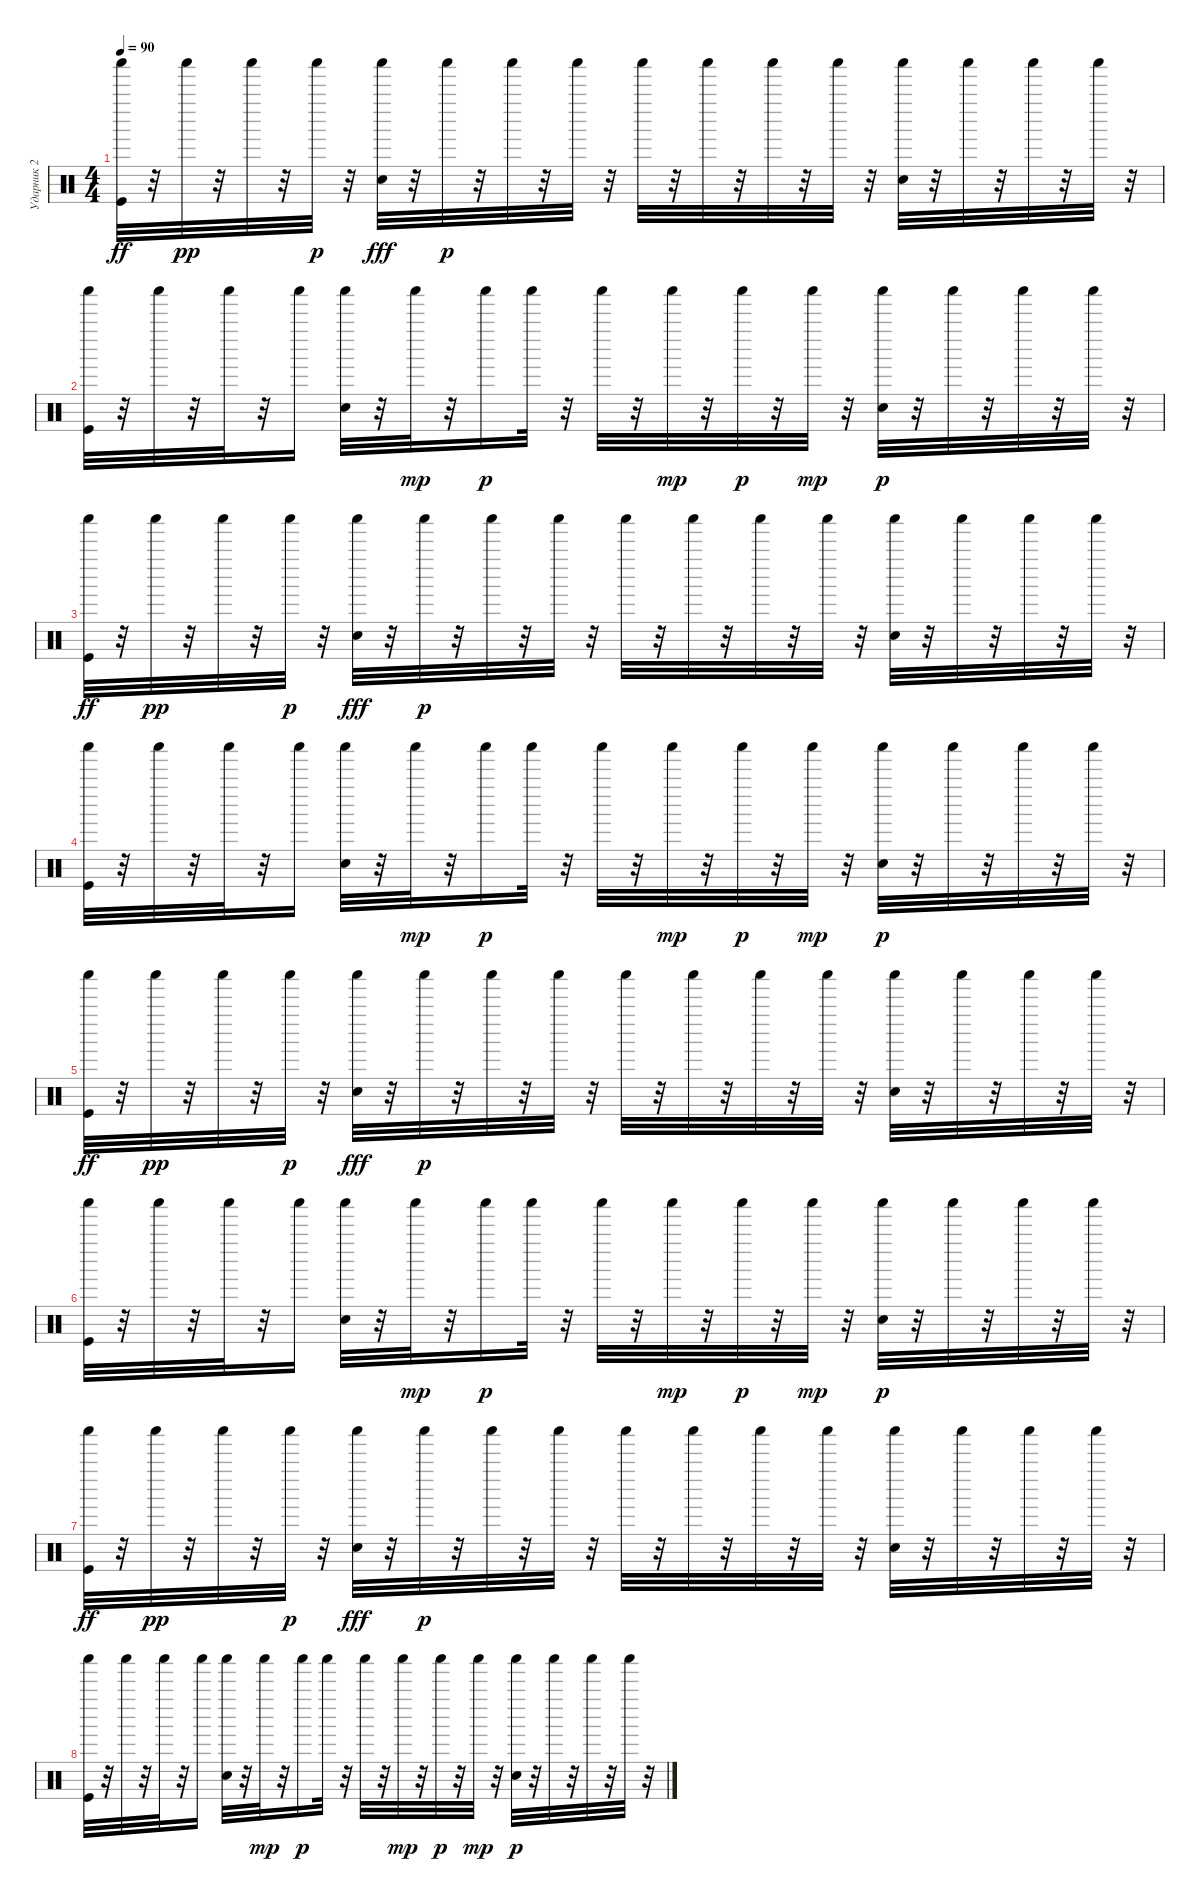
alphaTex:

\track ("Ударник 2" "Ударник 2") {instrument percussion}
\staff {score}
\articulation defaults
\ts (4 4)
\tempo 90
\clef neutral
\ks c
("Shaker (hit)" "Kick (hit)").32{dy ff} r.32 "Shaker (hit)".32{dy pp} r.32 "Shaker (hit)".32 r.32 "Shaker (hit)".32{dy p} r.32 ("Shaker (hit)" "Electric Snare (hit)").32{dy fff} r.32 "Shaker (hit)".32{dy p} r.32 "Shaker (hit)".32 r.32 "Shaker (hit)".32 r.32 "Shaker (hit)".32 r.32 "Shaker (hit)".32 r.32 "Shaker (hit)".32 r.32 "Shaker (hit)".32 r.32 ("Electric Snare (hit)" "Shaker (hit)").32 r.32 "Shaker (hit)".32 r.32 "Shaker (hit)".32 r.32 "Shaker (hit)".32 r.32 |
("Kick (hit)" "Shaker (hit)").32 r.32 "Shaker (hit)".32 r.32 "Shaker (hit)".32 r.32 "Shaker (hit)".16 ("Electric Snare (hit)" "Shaker (hit)").32 r.32 "Shaker (hit)".32{dy mp} r.32 "Shaker (hit)".16{dy p} "Shaker (hit)".32 r.32 "Shaker (hit)".32 r.32 "Shaker (hit)".32{dy mp} r.32 "Shaker (hit)".32{dy p} r.32 "Shaker (hit)".32{dy mp} r.32 ("Electric Snare (hit)" "Shaker (hit)").32{dy p} r.32 "Shaker (hit)".32 r.32 "Shaker (hit)".32 r.32 "Shaker (hit)".32 r.32 |
("Shaker (hit)" "Kick (hit)").32{dy ff} r.32 "Shaker (hit)".32{dy pp} r.32 "Shaker (hit)".32 r.32 "Shaker (hit)".32{dy p} r.32 ("Shaker (hit)" "Electric Snare (hit)").32{dy fff} r.32 "Shaker (hit)".32{dy p} r.32 "Shaker (hit)".32 r.32 "Shaker (hit)".32 r.32 "Shaker (hit)".32 r.32 "Shaker (hit)".32 r.32 "Shaker (hit)".32 r.32 "Shaker (hit)".32 r.32 ("Electric Snare (hit)" "Shaker (hit)").32 r.32 "Shaker (hit)".32 r.32 "Shaker (hit)".32 r.32 "Shaker (hit)".32 r.32 |
("Kick (hit)" "Shaker (hit)").32 r.32 "Shaker (hit)".32 r.32 "Shaker (hit)".32 r.32 "Shaker (hit)".16 ("Electric Snare (hit)" "Shaker (hit)").32 r.32 "Shaker (hit)".32{dy mp} r.32 "Shaker (hit)".16{dy p} "Shaker (hit)".32 r.32 "Shaker (hit)".32 r.32 "Shaker (hit)".32{dy mp} r.32 "Shaker (hit)".32{dy p} r.32 "Shaker (hit)".32{dy mp} r.32 ("Electric Snare (hit)" "Shaker (hit)").32{dy p} r.32 "Shaker (hit)".32 r.32 "Shaker (hit)".32 r.32 "Shaker (hit)".32 r.32 |
("Shaker (hit)" "Kick (hit)").32{dy ff} r.32 "Shaker (hit)".32{dy pp} r.32 "Shaker (hit)".32 r.32 "Shaker (hit)".32{dy p} r.32 ("Shaker (hit)" "Electric Snare (hit)").32{dy fff} r.32 "Shaker (hit)".32{dy p} r.32 "Shaker (hit)".32 r.32 "Shaker (hit)".32 r.32 "Shaker (hit)".32 r.32 "Shaker (hit)".32 r.32 "Shaker (hit)".32 r.32 "Shaker (hit)".32 r.32 ("Electric Snare (hit)" "Shaker (hit)").32 r.32 "Shaker (hit)".32 r.32 "Shaker (hit)".32 r.32 "Shaker (hit)".32 r.32 |
("Kick (hit)" "Shaker (hit)").32 r.32 "Shaker (hit)".32{volume 12} r.32 "Shaker (hit)".32{volume 12} r.32 "Shaker (hit)".16{volume 12} ("Electric Snare (hit)" "Shaker (hit)").32{volume 12} r.32 "Shaker (hit)".32{dy mp volume 11} r.32 "Shaker (hit)".16{dy p volume 11} "Shaker (hit)".32{volume 11} r.32 "Shaker (hit)".32{volume 11} r.32 "Shaker (hit)".32{dy mp volume 11} r.32 "Shaker (hit)".32{dy p volume 11} r.32 "Shaker (hit)".32{dy mp volume 10} r.32 ("Electric Snare (hit)" "Shaker (hit)").32{dy p volume 10} r.32 "Shaker (hit)".32{volume 10} r.32 "Shaker (hit)".32{volume 10} r.32 "Shaker (hit)".32{volume 10} r.32 |
("Shaker (hit)" "Kick (hit)").32{dy ff volume 10} r.32 "Shaker (hit)".32{dy pp volume 10} r.32 "Shaker (hit)".32{volume 9} r.32 "Shaker (hit)".32{dy p volume 9} r.32 ("Shaker (hit)" "Electric Snare (hit)").32{dy fff volume 9} r.32 "Shaker (hit)".32{dy p volume 9} r.32 "Shaker (hit)".32{volume 9} r.32 "Shaker (hit)".32{volume 9} r.32 "Shaker (hit)".32{volume 8} r.32 "Shaker (hit)".32{volume 8} r.32 "Shaker (hit)".32{volume 8} r.32 "Shaker (hit)".32{volume 8} r.32 ("Electric Snare (hit)" "Shaker (hit)").32{volume 8} r.32 "Shaker (hit)".32{volume 8} r.32 "Shaker (hit)".32{volume 8} r.32 "Shaker (hit)".32{volume 8} r.32 |
("Kick (hit)" "Shaker (hit)").32{volume 7} r.32 "Shaker (hit)".32{volume 7} r.32 "Shaker (hit)".32{volume 7} r.32 "Shaker (hit)".16{volume 7} ("Electric Snare (hit)" "Shaker (hit)").32{volume 7} r.32 "Shaker (hit)".32{dy mp volume 6} r.32 "Shaker (hit)".16{dy p volume 6} "Shaker (hit)".32{volume 6} r.32 "Shaker (hit)".32{volume 6} r.32 "Shaker (hit)".32{dy mp volume 6} r.32 "Shaker (hit)".32{dy p volume 6} r.32 "Shaker (hit)".32{dy mp volume 6} r.32 ("Electric Snare (hit)" "Shaker (hit)").32{dy p volume 6} r.32 "Shaker (hit)".32{volume 5} r.32 "Shaker (hit)".32{volume 5} r.32 "Shaker (hit)".32{volume 5} r.32
